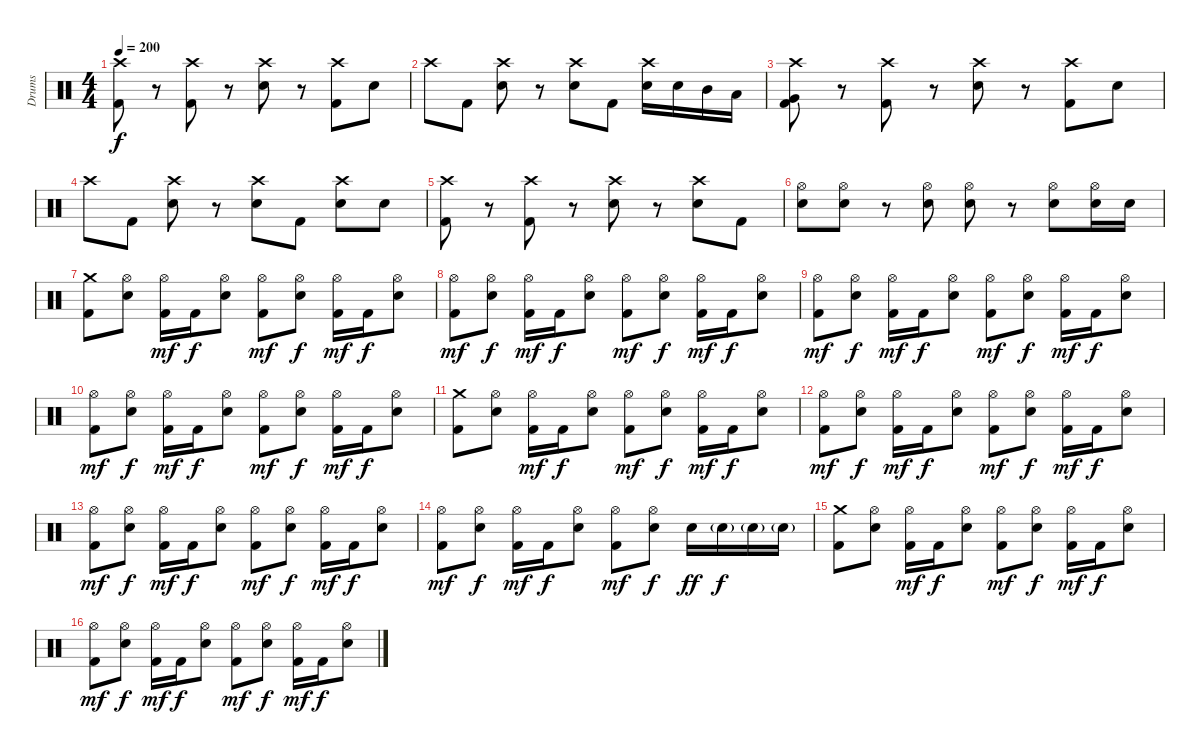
\track ("Drums" "Drums") {instrument percussion}
\staff {score}
\articulation defaults
\ts (4 4)
\tempo 200
\clef neutral
\ks c
("Crash high (hit)" "Kick (hit) 2").8{dy f} r.8 ("Crash high (hit)" "Kick (hit) 2").8 r.8 ("Crash high (hit)" "Electric Snare (hit)").8 r.8 ("Crash high (hit)" "Kick (hit) 2").8 "Electric Snare (hit)".8 |
"Crash high (hit)".8 "Kick (hit) 2".8 ("Crash high (hit)" "Electric Snare (hit)").8 r.8 ("Crash high (hit)" "Electric Snare (hit)").8 "Kick (hit) 2".8 ("Crash high (hit)" "Electric Snare (hit)").16 "Electric Snare (hit)".16 "Mid Tom (hit)".16 "Low Tom (hit)".16 |
("Crash high (hit)" "Very Low Tom (hit)" "Kick (hit) 2").8 r.8 ("Crash high (hit)" "Kick (hit) 2").8 r.8 ("Crash high (hit)" "Electric Snare (hit)").8 r.8 ("Crash high (hit)" "Kick (hit) 2").8 "Electric Snare (hit)".8 |
"Crash high (hit)".8 "Kick (hit) 2".8 ("Crash high (hit)" "Electric Snare (hit)").8 r.8 ("Crash high (hit)" "Electric Snare (hit)").8 "Kick (hit) 2".8 ("Crash high (hit)" "Electric Snare (hit)").8 "Electric Snare (hit)".8 |
("Crash high (hit)" "Kick (hit) 2").8 r.8 ("Crash high (hit)" "Kick (hit) 2").8 r.8 ("Crash high (hit)" "Electric Snare (hit)").8 r.8 ("Crash high (hit)" "Electric Snare (hit)").8 "Kick (hit) 2".8 |
("Hi-Hat (open)" "Electric Snare (hit)").8 ("Hi-Hat (open)" "Electric Snare (hit)").8 r.8 ("Hi-Hat (open)" "Electric Snare (hit)").8 ("Hi-Hat (open)" "Electric Snare (hit)").8 r.8 ("Hi-Hat (open)" "Electric Snare (hit)").8 ("Hi-Hat (open)" "Electric Snare (hit)").16 "Electric Snare (hit)".16 |
("Crash medium (hit)" "Kick (hit) 2").8 ("Hi-Hat (open)" "Electric Snare (hit)").8 ("Hi-Hat (open)" "Kick (hit) 2").16{dy mf} "Kick (hit) 2".16{dy f} ("Hi-Hat (open)" "Electric Snare (hit)").8 ("Hi-Hat (open)" "Kick (hit) 2").8{dy mf} ("Hi-Hat (open)" "Electric Snare (hit)").8{dy f} ("Hi-Hat (open)" "Kick (hit) 2").16{dy mf} "Kick (hit) 2".16{dy f} ("Hi-Hat (open)" "Electric Snare (hit)").8 |
("Hi-Hat (open)" "Kick (hit) 2").8{dy mf} ("Hi-Hat (open)" "Electric Snare (hit)").8{dy f} ("Hi-Hat (open)" "Kick (hit) 2").16{dy mf} "Kick (hit) 2".16{dy f} ("Hi-Hat (open)" "Electric Snare (hit)").8 ("Hi-Hat (open)" "Kick (hit) 2").8{dy mf} ("Hi-Hat (open)" "Electric Snare (hit)").8{dy f} ("Hi-Hat (open)" "Kick (hit) 2").16{dy mf} "Kick (hit) 2".16{dy f} ("Hi-Hat (open)" "Electric Snare (hit)").8 |
("Hi-Hat (open)" "Kick (hit) 2").8{dy mf} ("Hi-Hat (open)" "Electric Snare (hit)").8{dy f} ("Hi-Hat (open)" "Kick (hit) 2").16{dy mf} "Kick (hit) 2".16{dy f} ("Hi-Hat (open)" "Electric Snare (hit)").8 ("Hi-Hat (open)" "Kick (hit) 2").8{dy mf} ("Hi-Hat (open)" "Electric Snare (hit)").8{dy f} ("Hi-Hat (open)" "Kick (hit) 2").16{dy mf} "Kick (hit) 2".16{dy f} ("Hi-Hat (open)" "Electric Snare (hit)").8 |
("Hi-Hat (open)" "Kick (hit) 2").8{dy mf} ("Hi-Hat (open)" "Electric Snare (hit)").8{dy f} ("Hi-Hat (open)" "Kick (hit) 2").16{dy mf} "Kick (hit) 2".16{dy f} ("Hi-Hat (open)" "Electric Snare (hit)").8 ("Hi-Hat (open)" "Kick (hit) 2").8{dy mf} ("Hi-Hat (open)" "Electric Snare (hit)").8{dy f} ("Hi-Hat (open)" "Kick (hit) 2").16{dy mf} "Kick (hit) 2".16{dy f} ("Hi-Hat (open)" "Electric Snare (hit)").8 |
("Crash medium (hit)" "Kick (hit) 2").8 ("Hi-Hat (open)" "Electric Snare (hit)").8 ("Hi-Hat (open)" "Kick (hit) 2").16{dy mf} "Kick (hit) 2".16{dy f} ("Hi-Hat (open)" "Electric Snare (hit)").8 ("Hi-Hat (open)" "Kick (hit) 2").8{dy mf} ("Hi-Hat (open)" "Electric Snare (hit)").8{dy f} ("Hi-Hat (open)" "Kick (hit) 2").16{dy mf} "Kick (hit) 2".16{dy f} ("Hi-Hat (open)" "Electric Snare (hit)").8 |
("Hi-Hat (open)" "Kick (hit) 2").8{dy mf} ("Hi-Hat (open)" "Electric Snare (hit)").8{dy f} ("Hi-Hat (open)" "Kick (hit) 2").16{dy mf} "Kick (hit) 2".16{dy f} ("Hi-Hat (open)" "Electric Snare (hit)").8 ("Hi-Hat (open)" "Kick (hit) 2").8{dy mf} ("Hi-Hat (open)" "Electric Snare (hit)").8{dy f} ("Hi-Hat (open)" "Kick (hit) 2").16{dy mf} "Kick (hit) 2".16{dy f} ("Hi-Hat (open)" "Electric Snare (hit)").8 |
("Hi-Hat (open)" "Kick (hit) 2").8{dy mf} ("Hi-Hat (open)" "Electric Snare (hit)").8{dy f} ("Hi-Hat (open)" "Kick (hit) 2").16{dy mf} "Kick (hit) 2".16{dy f} ("Hi-Hat (open)" "Electric Snare (hit)").8 ("Hi-Hat (open)" "Kick (hit) 2").8{dy mf} ("Hi-Hat (open)" "Electric Snare (hit)").8{dy f} ("Hi-Hat (open)" "Kick (hit) 2").16{dy mf} "Kick (hit) 2".16{dy f} ("Hi-Hat (open)" "Electric Snare (hit)").8 |
("Hi-Hat (open)" "Kick (hit) 2").8{dy mf} ("Hi-Hat (open)" "Electric Snare (hit)").8{dy f} ("Hi-Hat (open)" "Kick (hit) 2").16{dy mf} "Kick (hit) 2".16{dy f} ("Hi-Hat (open)" "Electric Snare (hit)").8 ("Hi-Hat (open)" "Kick (hit) 2").8{dy mf} ("Hi-Hat (open)" "Electric Snare (hit)").8{dy f} "Electric Snare (hit)".16{dy ff} "Electric Snare (hit)"{g}.16{dy f} "Electric Snare (hit)"{g}.16 "Electric Snare (hit)"{g}.16 |
("Crash medium (hit)" "Kick (hit) 2").8 ("Hi-Hat (open)" "Electric Snare (hit)").8 ("Hi-Hat (open)" "Kick (hit) 2").16{dy mf} "Kick (hit) 2".16{dy f} ("Hi-Hat (open)" "Electric Snare (hit)").8 ("Hi-Hat (open)" "Kick (hit) 2").8{dy mf} ("Hi-Hat (open)" "Electric Snare (hit)").8{dy f} ("Hi-Hat (open)" "Kick (hit) 2").16{dy mf} "Kick (hit) 2".16{dy f} ("Hi-Hat (open)" "Electric Snare (hit)").8 |
("Hi-Hat (open)" "Kick (hit) 2").8{dy mf} ("Hi-Hat (open)" "Electric Snare (hit)").8{dy f} ("Hi-Hat (open)" "Kick (hit) 2").16{dy mf} "Kick (hit) 2".16{dy f} ("Hi-Hat (open)" "Electric Snare (hit)").8 ("Hi-Hat (open)" "Kick (hit) 2").8{dy mf} ("Hi-Hat (open)" "Electric Snare (hit)").8{dy f} ("Hi-Hat (open)" "Kick (hit) 2").16{dy mf} "Kick (hit) 2".16{dy f} ("Hi-Hat (open)" "Electric Snare (hit)").8
